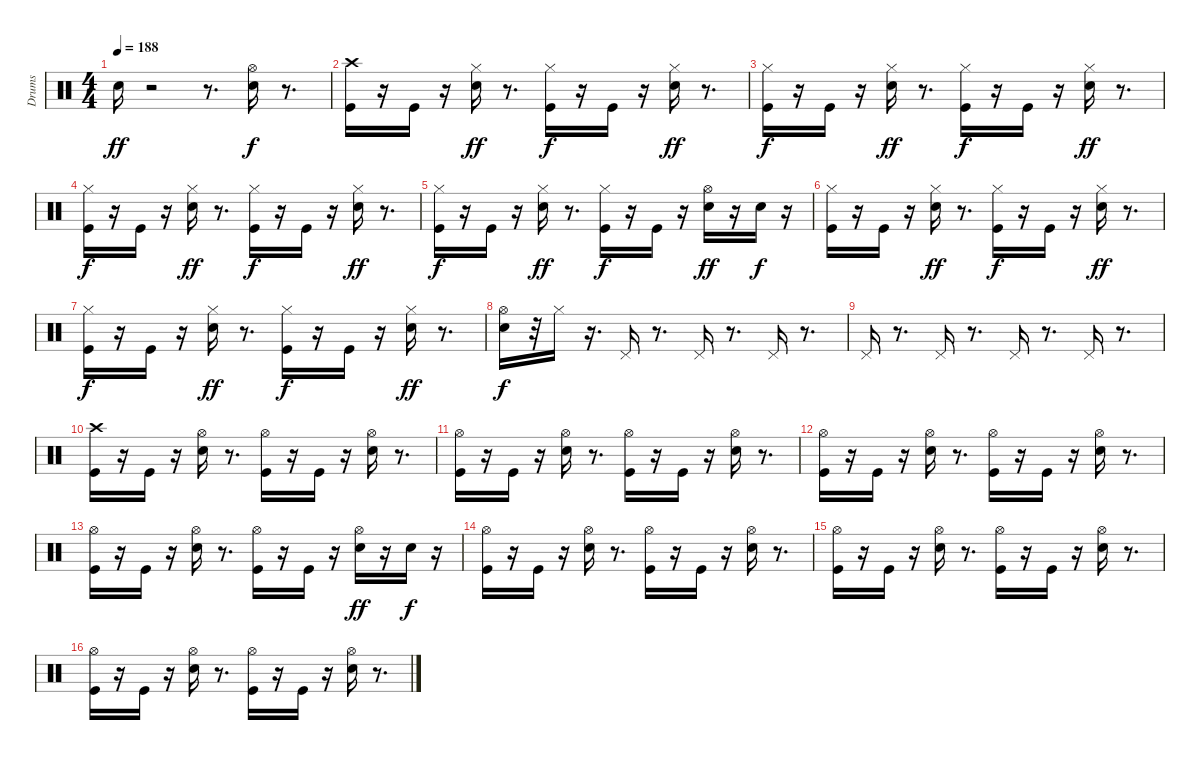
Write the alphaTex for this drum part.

\track ("Drums" "Drums") {instrument percussion}
\staff {score}
\articulation defaults
\ts (4 4)
\tempo 188
\clef neutral
\ks c "Snare (hit) 2".16{dy ff}
r.2 r.8{d} ("Hi-Hat (open)" "Snare (hit) 2").16{dy f} r.8{d} |
("Crash high (hit)" "Kick (hit)").16 r.16 "Kick (hit)".16 r.16 ("Snare (hit) 2" "Hi-Hat (closed)").16{dy ff} r.8{d} ("Hi-Hat (closed)" "Kick (hit)").16{dy f} r.16 "Kick (hit)".16 r.16 ("Snare (hit) 2" "Hi-Hat (closed)").16{dy ff} r.8{d} |
("Hi-Hat (closed)" "Kick (hit)").16{dy f} r.16 "Kick (hit)".16 r.16 ("Snare (hit) 2" "Hi-Hat (closed)").16{dy ff} r.8{d} ("Hi-Hat (closed)" "Kick (hit)").16{dy f} r.16 "Kick (hit)".16 r.16 ("Snare (hit) 2" "Hi-Hat (closed)").16{dy ff} r.8{d} |
("Hi-Hat (closed)" "Kick (hit)").16{dy f} r.16 "Kick (hit)".16 r.16 ("Snare (hit) 2" "Hi-Hat (closed)").16{dy ff} r.8{d} ("Hi-Hat (closed)" "Kick (hit)").16{dy f} r.16 "Kick (hit)".16 r.16 ("Snare (hit) 2" "Hi-Hat (closed)").16{dy ff} r.8{d} |
("Hi-Hat (closed)" "Kick (hit)").16{dy f} r.16 "Kick (hit)".16 r.16 ("Snare (hit) 2" "Hi-Hat (closed)").16{dy ff} r.8{d} ("Hi-Hat (closed)" "Kick (hit)").16{dy f} r.16 "Kick (hit)".16 r.16 ("Snare (hit) 2" "Hi-Hat (open)").16{dy ff} r.16 "Snare (hit) 2".16{dy f} r.16 |
("Hi-Hat (closed)" "Kick (hit)").16 r.16 "Kick (hit)".16 r.16 ("Snare (hit) 2" "Hi-Hat (closed)").16{dy ff} r.8{d} ("Hi-Hat (closed)" "Kick (hit)").16{dy f} r.16 "Kick (hit)".16 r.16 ("Snare (hit) 2" "Hi-Hat (closed)").16{dy ff} r.8{d} |
("Hi-Hat (closed)" "Kick (hit)").16{dy f} r.16 "Kick (hit)".16 r.16 ("Snare (hit) 2" "Hi-Hat (closed)").16{dy ff} r.8{d} ("Hi-Hat (closed)" "Kick (hit)").16{dy f} r.16 "Kick (hit)".16 r.16 ("Snare (hit) 2" "Hi-Hat (closed)").16{dy ff} r.8{d} |
("Hi-Hat (open)" "Snare (hit) 2").16{dy f} r.32 "Hi-Hat (closed)".16 r.16{d} "Pedal Hi-Hat (hit)".16 r.8{d} "Pedal Hi-Hat (hit)".16 r.8{d} "Pedal Hi-Hat (hit)".16 r.8{d} |
"Pedal Hi-Hat (hit)".16 r.8{d} "Pedal Hi-Hat (hit)".16 r.8{d} "Pedal Hi-Hat (hit)".16 r.8{d} "Pedal Hi-Hat (hit)".16 r.8{d} |
("Crash high (hit)" "Kick (hit)").16 r.16 "Kick (hit)".16 r.16 ("Hi-Hat (open)" "Snare (hit) 2").16 r.8{d} ("Hi-Hat (open)" "Kick (hit)").16 r.16 "Kick (hit)".16 r.16 ("Hi-Hat (open)" "Snare (hit) 2").16 r.8{d} |
("Hi-Hat (open)" "Kick (hit)").16 r.16 "Kick (hit)".16 r.16 ("Hi-Hat (open)" "Snare (hit) 2").16 r.8{d} ("Hi-Hat (open)" "Kick (hit)").16 r.16 "Kick (hit)".16 r.16 ("Hi-Hat (open)" "Snare (hit) 2").16 r.8{d} |
("Hi-Hat (open)" "Kick (hit)").16 r.16 "Kick (hit)".16 r.16 ("Hi-Hat (open)" "Snare (hit) 2").16 r.8{d} ("Hi-Hat (open)" "Kick (hit)").16 r.16 "Kick (hit)".16 r.16 ("Hi-Hat (open)" "Snare (hit) 2").16 r.8{d} |
("Hi-Hat (open)" "Kick (hit)").16 r.16 "Kick (hit)".16 r.16 ("Hi-Hat (open)" "Snare (hit) 2").16 r.8{d} ("Hi-Hat (open)" "Kick (hit)").16 r.16 "Kick (hit)".16 r.16 ("Snare (hit) 2" "Hi-Hat (open)").16{dy ff} r.16 "Snare (hit) 2".16{dy f} r.16 |
("Hi-Hat (open)" "Kick (hit)").16 r.16 "Kick (hit)".16 r.16 ("Hi-Hat (open)" "Snare (hit) 2").16 r.8{d} ("Hi-Hat (open)" "Kick (hit)").16 r.16 "Kick (hit)".16 r.16 ("Hi-Hat (open)" "Snare (hit) 2").16 r.8{d} |
("Hi-Hat (open)" "Kick (hit)").16 r.16 "Kick (hit)".16 r.16 ("Hi-Hat (open)" "Snare (hit) 2").16 r.8{d} ("Hi-Hat (open)" "Kick (hit)").16 r.16 "Kick (hit)".16 r.16 ("Hi-Hat (open)" "Snare (hit) 2").16 r.8{d} |
("Hi-Hat (open)" "Kick (hit)").16 r.16 "Kick (hit)".16 r.16 ("Hi-Hat (open)" "Snare (hit) 2").16 r.8{d} ("Hi-Hat (open)" "Kick (hit)").16 r.16 "Kick (hit)".16 r.16 ("Hi-Hat (open)" "Snare (hit) 2").16 r.8{d}
